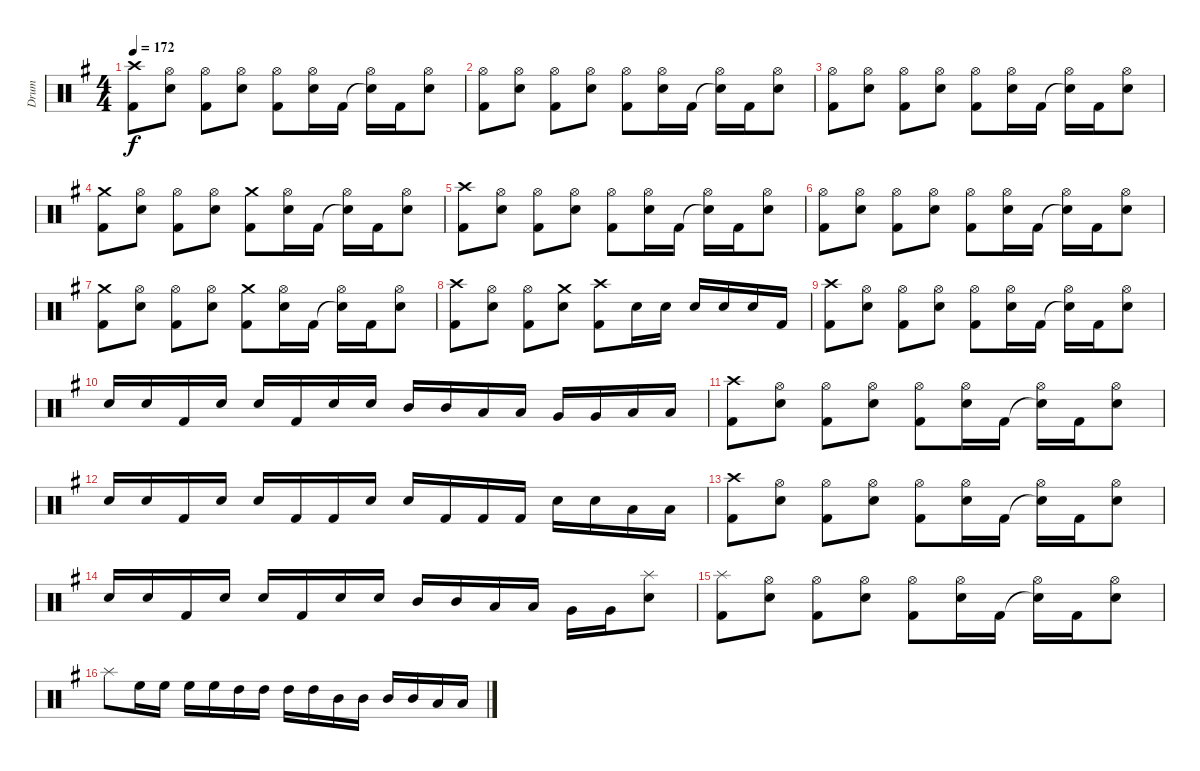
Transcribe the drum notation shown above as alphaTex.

\track ("Drum" "Drum") {instrument percussion}
\staff {score}
\articulation defaults
\ts (4 4)
\tempo 172
\clef neutral
\ks eminor
("Kick (hit) 2" "Crash high (hit)").8{dy f} ("Electric Snare (hit)" "Hi-Hat (open)").8 ("Kick (hit) 2" "Hi-Hat (open)").8 ("Electric Snare (hit)" "Hi-Hat (open)").8 ("Kick (hit) 2" "Hi-Hat (open)").8 ("Electric Snare (hit)" "Hi-Hat (open)").16 "Kick (hit) 2".16 ("Snare (hit)"{t} "Hi-Hat (open)").16 "Kick (hit) 2".16 ("Electric Snare (hit)" "Hi-Hat (open)").8 |
("Kick (hit) 2" "Hi-Hat (open)").8 ("Electric Snare (hit)" "Hi-Hat (open)").8 ("Kick (hit) 2" "Hi-Hat (open)").8 ("Electric Snare (hit)" "Hi-Hat (open)").8 ("Kick (hit) 2" "Hi-Hat (open)").8 ("Electric Snare (hit)" "Hi-Hat (open)").16 "Kick (hit) 2".16 ("Snare (hit)"{t} "Hi-Hat (open)").16 "Kick (hit) 2".16 ("Electric Snare (hit)" "Hi-Hat (open)").8 |
("Kick (hit) 2" "Hi-Hat (open)").8 ("Electric Snare (hit)" "Hi-Hat (open)").8 ("Kick (hit) 2" "Hi-Hat (open)").8 ("Electric Snare (hit)" "Hi-Hat (open)").8 ("Kick (hit) 2" "Hi-Hat (open)").8 ("Electric Snare (hit)" "Hi-Hat (open)").16 "Kick (hit) 2".16 ("Snare (hit)"{t} "Hi-Hat (open)").16 "Kick (hit) 2".16 ("Electric Snare (hit)" "Hi-Hat (open)").8 |
("Kick (hit) 2" "Crash medium (hit)").8 ("Electric Snare (hit)" "Hi-Hat (open)").8 ("Kick (hit) 2" "Hi-Hat (open)").8 ("Electric Snare (hit)" "Hi-Hat (open)").8 ("Kick (hit) 2" "Crash medium (hit)").8 ("Electric Snare (hit)" "Hi-Hat (open)").16 "Kick (hit) 2".16 ("Snare (hit)"{t} "Hi-Hat (open)").16 "Kick (hit) 2".16 ("Electric Snare (hit)" "Hi-Hat (open)").8 |
("Kick (hit) 2" "Crash high (hit)").8 ("Electric Snare (hit)" "Hi-Hat (open)").8 ("Kick (hit) 2" "Hi-Hat (open)").8 ("Electric Snare (hit)" "Hi-Hat (open)").8 ("Kick (hit) 2" "Hi-Hat (open)").8 ("Electric Snare (hit)" "Hi-Hat (open)").16 "Kick (hit) 2".16 ("Snare (hit)"{t} "Hi-Hat (open)").16 "Kick (hit) 2".16 ("Electric Snare (hit)" "Hi-Hat (open)").8 |
("Kick (hit) 2" "Hi-Hat (open)").8 ("Electric Snare (hit)" "Hi-Hat (open)").8 ("Kick (hit) 2" "Hi-Hat (open)").8 ("Electric Snare (hit)" "Hi-Hat (open)").8 ("Kick (hit) 2" "Hi-Hat (open)").8 ("Electric Snare (hit)" "Hi-Hat (open)").16 "Kick (hit) 2".16 ("Snare (hit)"{t} "Hi-Hat (open)").16 "Kick (hit) 2".16 ("Electric Snare (hit)" "Hi-Hat (open)").8 |
("Kick (hit) 2" "Crash medium (hit)").8 ("Electric Snare (hit)" "Hi-Hat (open)").8 ("Kick (hit) 2" "Hi-Hat (open)").8 ("Electric Snare (hit)" "Hi-Hat (open)").8 ("Kick (hit) 2" "Crash medium (hit)").8 ("Electric Snare (hit)" "Hi-Hat (open)").16 "Kick (hit) 2".16 ("Snare (hit)"{t} "Hi-Hat (open)").16 "Kick (hit) 2".16 ("Electric Snare (hit)" "Hi-Hat (open)").8 |
("Kick (hit) 2" "Crash high (hit)").8 ("Electric Snare (hit)" "Hi-Hat (open)").8 ("Kick (hit) 2" "Hi-Hat (open)").8 ("Electric Snare (hit)" "Crash medium (hit)").8 ("Kick (hit) 2" "Crash high (hit)").8 "Electric Snare (hit)".16 "Electric Snare (hit)".16 "Electric Snare (hit)".16 "Electric Snare (hit)".16 "Electric Snare (hit)".16 "Kick (hit) 2".16 |
("Kick (hit) 2" "Crash high (hit)").8 ("Electric Snare (hit)" "Hi-Hat (open)").8 ("Kick (hit) 2" "Hi-Hat (open)").8 ("Electric Snare (hit)" "Hi-Hat (open)").8 ("Kick (hit) 2" "Hi-Hat (open)").8 ("Electric Snare (hit)" "Hi-Hat (open)").16 "Kick (hit) 2".16 ("Snare (hit)"{t} "Hi-Hat (open)").16 "Kick (hit) 2".16 ("Electric Snare (hit)" "Hi-Hat (open)").8 |
"Electric Snare (hit)".16 "Electric Snare (hit)".16 "Kick (hit) 2".16 "Electric Snare (hit)".16 "Electric Snare (hit)".16 "Kick (hit) 2".16 "Electric Snare (hit)".16 "Electric Snare (hit)".16 "Mid Tom (hit)".16 "Mid Tom (hit)".16 "Low Tom (hit)".16 "Low Tom (hit)".16 "Very Low Tom (hit)".16 "Very Low Tom (hit)".16 "Low Floor Tom (hit)".16 "Low Floor Tom (hit)".16 |
("Kick (hit) 2" "Crash high (hit)").8 ("Electric Snare (hit)" "Hi-Hat (open)").8 ("Kick (hit) 2" "Hi-Hat (open)").8 ("Electric Snare (hit)" "Hi-Hat (open)").8 ("Kick (hit) 2" "Hi-Hat (open)").8 ("Electric Snare (hit)" "Hi-Hat (open)").16 "Kick (hit) 2".16 ("Snare (hit)"{t} "Hi-Hat (open)").16 "Kick (hit) 2".16 ("Electric Snare (hit)" "Hi-Hat (open)").8 |
"Electric Snare (hit)".16 "Electric Snare (hit)".16 "Kick (hit) 2".16 "Electric Snare (hit)".16 "Electric Snare (hit)".16 "Kick (hit) 2".16 "Kick (hit) 2".16 "Electric Snare (hit)".16 "Electric Snare (hit)".16 "Kick (hit) 2".16 "Kick (hit) 2".16 "Kick (hit) 2".16 "Electric Snare (hit)".16 "Electric Snare (hit)".16 "Low Tom (hit)".16 "Low Tom (hit)".16 |
("Kick (hit) 2" "Crash high (hit)").8 ("Electric Snare (hit)" "Hi-Hat (open)").8 ("Kick (hit) 2" "Hi-Hat (open)").8 ("Electric Snare (hit)" "Hi-Hat (open)").8 ("Kick (hit) 2" "Hi-Hat (open)").8 ("Electric Snare (hit)" "Hi-Hat (open)").16 "Kick (hit) 2".16 ("Snare (hit)"{t} "Hi-Hat (open)").16 "Kick (hit) 2".16 ("Electric Snare (hit)" "Hi-Hat (open)").8 |
"Electric Snare (hit)".16 "Electric Snare (hit)".16 "Kick (hit) 2".16 "Electric Snare (hit)".16 "Electric Snare (hit)".16 "Kick (hit) 2".16 "Electric Snare (hit)".16 "Electric Snare (hit)".16 "Mid Tom (hit)".16 "Mid Tom (hit)".16 "Low Tom (hit)".16 "Low Tom (hit)".16 "Very Low Tom (hit)".16 "Very Low Tom (hit)".16 ("Electric Snare (hit)" "Splash (hit)").8 |
("Kick (hit) 2" "Splash (hit)").8 ("Electric Snare (hit)" "Hi-Hat (open)").8 ("Kick (hit) 2" "Hi-Hat (open)").8 ("Electric Snare (hit)" "Hi-Hat (open)").8 ("Kick (hit) 2" "Hi-Hat (open)").8 ("Electric Snare (hit)" "Hi-Hat (open)").16 "Kick (hit) 2".16 ("Snare (hit)"{t} "Hi-Hat (open)").16 "Kick (hit) 2".16 ("Electric Snare (hit)" "Hi-Hat (open)").8 |
"Splash (hit)".8 "High Floor Tom (hit)".16 "High Floor Tom (hit)".16 "High Floor Tom (hit)".16 "High Floor Tom (hit)".16 "High Tom (hit)".16 "High Tom (hit)".16 "High Tom (hit)".16 "High Tom (hit)".16 "Mid Tom (hit)".16 "Mid Tom (hit)".16 "Mid Tom (hit)".16 "Mid Tom (hit)".16 "Low Tom (hit)".16 "Low Tom (hit)".16
